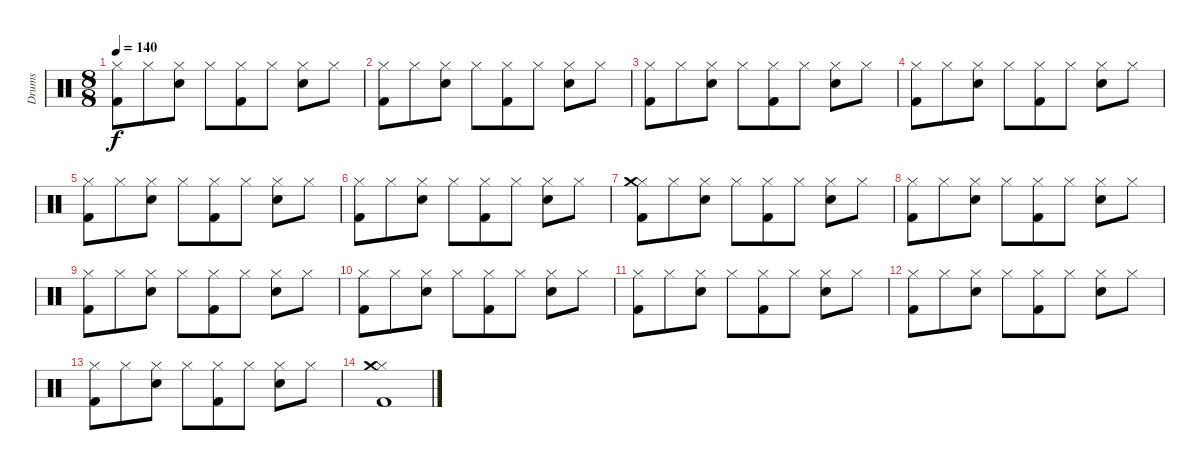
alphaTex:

\track ("Drums" "Drums") {instrument percussion}
\staff {score}
\articulation defaults
\ts (8 8)
\tempo 140
\clef neutral
\ks c
("Hi-Hat (closed)" "Kick (hit) 2").8{dy f} "Hi-Hat (closed)".8 ("Hi-Hat (closed)" "Snare (hit) 2").8 "Hi-Hat (closed)".8 ("Hi-Hat (closed)" "Kick (hit) 2").8 "Hi-Hat (closed)".8 ("Hi-Hat (closed)" "Snare (hit) 2").8 "Hi-Hat (closed)".8 |
("Hi-Hat (closed)" "Kick (hit) 2").8 "Hi-Hat (closed)".8 ("Hi-Hat (closed)" "Snare (hit) 2").8 "Hi-Hat (closed)".8 ("Hi-Hat (closed)" "Kick (hit) 2").8 "Hi-Hat (closed)".8 ("Hi-Hat (closed)" "Snare (hit) 2").8 "Hi-Hat (closed)".8 |
("Hi-Hat (closed)" "Kick (hit) 2").8 "Hi-Hat (closed)".8 ("Hi-Hat (closed)" "Snare (hit) 2").8 "Hi-Hat (closed)".8 ("Hi-Hat (closed)" "Kick (hit) 2").8 "Hi-Hat (closed)".8 ("Hi-Hat (closed)" "Snare (hit) 2").8 "Hi-Hat (closed)".8 |
("Hi-Hat (closed)" "Kick (hit) 2").8 "Hi-Hat (closed)".8 ("Hi-Hat (closed)" "Snare (hit) 2").8 "Hi-Hat (closed)".8 ("Hi-Hat (closed)" "Kick (hit) 2").8 "Hi-Hat (closed)".8 ("Hi-Hat (closed)" "Snare (hit) 2").8 "Hi-Hat (closed)".8 |
("Hi-Hat (closed)" "Kick (hit) 2").8 "Hi-Hat (closed)".8 ("Hi-Hat (closed)" "Snare (hit) 2").8 "Hi-Hat (closed)".8 ("Hi-Hat (closed)" "Kick (hit) 2").8 "Hi-Hat (closed)".8 ("Hi-Hat (closed)" "Snare (hit) 2").8 "Hi-Hat (closed)".8 |
("Hi-Hat (closed)" "Kick (hit) 2").8 "Hi-Hat (closed)".8 ("Hi-Hat (closed)" "Snare (hit) 2").8 "Hi-Hat (closed)".8 ("Hi-Hat (closed)" "Kick (hit) 2").8 "Hi-Hat (closed)".8 ("Hi-Hat (closed)" "Snare (hit) 2").8 "Hi-Hat (closed)".8 |
("Hi-Hat (closed)" "Kick (hit) 2" "Crash medium (hit)").8 "Hi-Hat (closed)".8 ("Hi-Hat (closed)" "Snare (hit) 2").8 "Hi-Hat (closed)".8 ("Hi-Hat (closed)" "Kick (hit) 2").8 "Hi-Hat (closed)".8 ("Hi-Hat (closed)" "Snare (hit) 2").8 "Hi-Hat (closed)".8 |
("Hi-Hat (closed)" "Kick (hit) 2").8 "Hi-Hat (closed)".8 ("Hi-Hat (closed)" "Snare (hit) 2").8 "Hi-Hat (closed)".8 ("Hi-Hat (closed)" "Kick (hit) 2").8 "Hi-Hat (closed)".8 ("Hi-Hat (closed)" "Snare (hit) 2").8 "Hi-Hat (closed)".8 |
("Hi-Hat (closed)" "Kick (hit) 2").8 "Hi-Hat (closed)".8 ("Hi-Hat (closed)" "Snare (hit) 2").8 "Hi-Hat (closed)".8 ("Hi-Hat (closed)" "Kick (hit) 2").8 "Hi-Hat (closed)".8 ("Hi-Hat (closed)" "Snare (hit) 2").8 "Hi-Hat (closed)".8 |
("Hi-Hat (closed)" "Kick (hit) 2").8 "Hi-Hat (closed)".8 ("Hi-Hat (closed)" "Snare (hit) 2").8 "Hi-Hat (closed)".8 ("Hi-Hat (closed)" "Kick (hit) 2").8 "Hi-Hat (closed)".8 ("Hi-Hat (closed)" "Snare (hit) 2").8 "Hi-Hat (closed)".8 |
("Hi-Hat (closed)" "Kick (hit) 2").8 "Hi-Hat (closed)".8 ("Hi-Hat (closed)" "Snare (hit) 2").8 "Hi-Hat (closed)".8 ("Hi-Hat (closed)" "Kick (hit) 2").8 "Hi-Hat (closed)".8 ("Hi-Hat (closed)" "Snare (hit) 2").8 "Hi-Hat (closed)".8 |
("Hi-Hat (closed)" "Kick (hit) 2").8 "Hi-Hat (closed)".8 ("Hi-Hat (closed)" "Snare (hit) 2").8 "Hi-Hat (closed)".8 ("Hi-Hat (closed)" "Kick (hit) 2").8 "Hi-Hat (closed)".8 ("Hi-Hat (closed)" "Snare (hit) 2").8 "Hi-Hat (closed)".8 |
("Hi-Hat (closed)" "Kick (hit) 2").8 "Hi-Hat (closed)".8 ("Hi-Hat (closed)" "Snare (hit) 2").8 "Hi-Hat (closed)".8 ("Hi-Hat (closed)" "Kick (hit) 2").8 "Hi-Hat (closed)".8 ("Hi-Hat (closed)" "Snare (hit) 2").8 "Hi-Hat (closed)".8 |
("Hi-Hat (closed)" "Kick (hit) 2" "Crash medium (hit)").1
